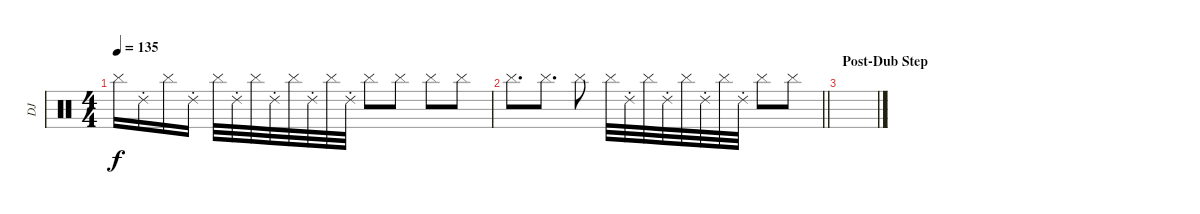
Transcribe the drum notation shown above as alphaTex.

\track ("DJ" "DJ") {instrument percussion}
\staff {score}
\articulation defaults
\ts (4 4)
\tempo 135
\clef neutral
\ks c "Cymbal (hit)".16{dy f} "Ride (choke) 2".16 "Cymbal (hit)".16 "Ride (choke) 2".16 "Cymbal (hit)".32 "Ride (choke) 2".32 "Cymbal (hit)".32 "Ride (choke) 2".32 "Cymbal (hit)".32 "Ride (choke) 2".32 "Cymbal (hit)".32 "Ride (choke) 2".32 "Cymbal (hit)".8 "Cymbal (hit)".8 "Cymbal (hit)".8 "Cymbal (hit)".8
|
\barLineRight lightlight "Cymbal (hit)".8{d} "Cymbal (hit)".8{d} "Cymbal (hit)".8 "Cymbal (hit)".32 "Ride (choke) 2".32 "Cymbal (hit)".32 "Ride (choke) 2".32 "Cymbal (hit)".32 "Ride (choke) 2".32 "Cymbal (hit)".32 "Ride (choke) 2".32 "Cymbal (hit)".8 "Cymbal (hit)".8
|
\section ("" "Post-Dub Step")
